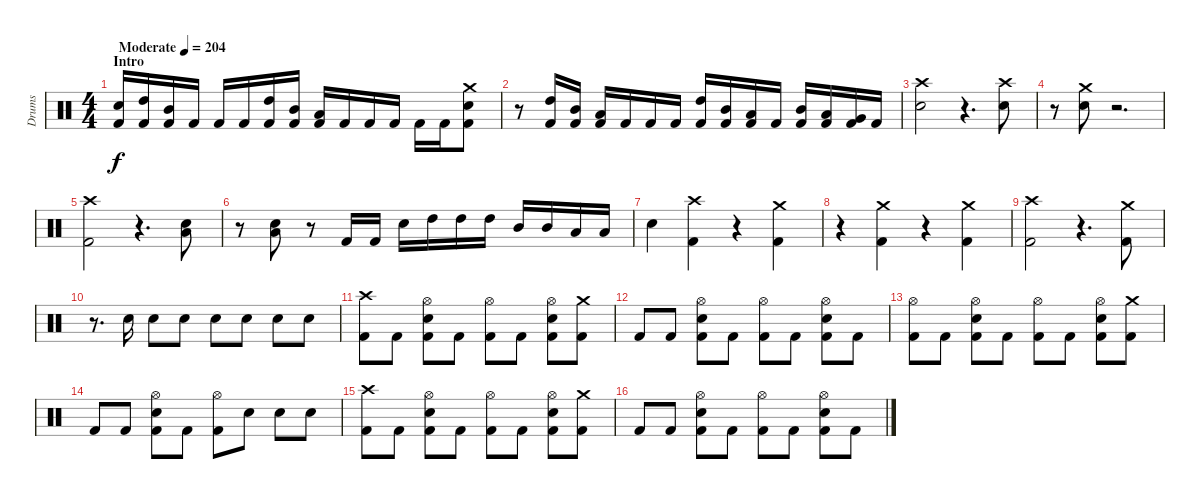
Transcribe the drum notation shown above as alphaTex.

\track ("Drums" "Drums") {instrument percussion}
\staff {score}
\articulation defaults
\ts (4 4)
\section ("" "Intro")
\tempo (204 "Moderate")
\clef neutral
\ks c
("Snare (hit) 2" "Kick (hit) 2").16{dy f} ("High Tom (hit)" "Kick (hit) 2").16 ("Mid Tom (hit)" "Kick (hit) 2").16 "Kick (hit) 2".16 "Kick (hit) 2".16 "Kick (hit) 2".16 ("High Tom (hit)" "Kick (hit) 2").16 ("Mid Tom (hit)" "Kick (hit) 2").16 ("Low Tom (hit)" "Kick (hit) 2").16 "Kick (hit) 2".16 "Kick (hit) 2".16 "Kick (hit) 2".16 "Kick (hit) 2".16 "Kick (hit) 2".16 ("Crash medium (hit)" "Snare (hit) 2" "Kick (hit) 2").8 |
r.8 ("High Tom (hit)" "Kick (hit) 2").16 ("Mid Tom (hit)" "Kick (hit) 2").16 ("Low Tom (hit)" "Kick (hit) 2").16 "Kick (hit) 2".16 "Kick (hit) 2".16 "Kick (hit) 2".16 ("High Tom (hit)" "Kick (hit) 2").16 ("Mid Tom (hit)" "Kick (hit) 2").16 ("Low Tom (hit)" "Kick (hit) 2").16 "Kick (hit) 2".16 ("Mid Tom (hit)" "Kick (hit) 2").16 ("Low Tom (hit)" "Kick (hit) 2").16 ("Very Low Tom (hit)" "Kick (hit) 2").16 "Kick (hit) 2".16 |
("Crash high (hit)" "Snare (hit) 2").2 r.4{d} ("Crash high (hit)" "Snare (hit) 2").8 |
r.8 ("Crash medium (hit)" "Snare (hit) 2").8 r.2{d} |
("Crash high (hit)" "Kick (hit) 2").2 r.4{d} ("Snare (hit) 2" "Low Tom (hit)").8 |
r.8 ("Snare (hit) 2" "Low Tom (hit)").8 r.8 "Kick (hit) 2".16 "Kick (hit) 2".16 "Snare (hit) 2".16 "High Tom (hit)".16 "High Tom (hit)".16 "High Tom (hit)".16 "Mid Tom (hit)".16 "Mid Tom (hit)".16 "Low Tom (hit)".16 "Low Tom (hit)".16 |
"Snare (hit) 2".4 ("Crash high (hit)" "Kick (hit) 2").4 r.4{volume 0} ("Crash medium (hit)" "Kick (hit) 2").4{volume 16} |
r.4{volume 0} ("Crash medium (hit)" "Kick (hit) 2").4{volume 16} r.4{volume 0} ("Crash medium (hit)" "Kick (hit) 2").4{volume 16} |
("Crash high (hit)" "Kick (hit) 2").2 r.4{d} ("Crash medium (hit)" "Kick (hit) 2").8 |
r.8{d} "Snare (hit) 2".16 "Snare (hit) 2".8 "Snare (hit) 2".8 "Snare (hit) 2".8 "Snare (hit) 2".8 "Snare (hit) 2".8 "Snare (hit) 2".8 |
("Crash high (hit)" "Kick (hit) 2").8 "Kick (hit) 2".8 ("Hi-Hat (open)" "Snare (hit) 2" "Kick (hit) 2").8 "Kick (hit) 2".8 ("Hi-Hat (open)" "Kick (hit) 2").8 "Kick (hit) 2".8 ("Hi-Hat (open)" "Snare (hit) 2" "Kick (hit) 2").8 ("Crash medium (hit)" "Kick (hit) 2").8 |
"Kick (hit) 2".8 "Kick (hit) 2".8 ("Hi-Hat (open)" "Snare (hit) 2" "Kick (hit) 2").8 "Kick (hit) 2".8 ("Hi-Hat (open)" "Kick (hit) 2").8 "Kick (hit) 2".8 ("Hi-Hat (open)" "Snare (hit) 2" "Kick (hit) 2").8 "Kick (hit) 2".8 |
("Hi-Hat (open)" "Kick (hit) 2").8 "Kick (hit) 2".8 ("Hi-Hat (open)" "Snare (hit) 2" "Kick (hit) 2").8 "Kick (hit) 2".8 ("Hi-Hat (open)" "Kick (hit) 2").8 "Kick (hit) 2".8 ("Hi-Hat (open)" "Snare (hit) 2" "Kick (hit) 2").8 ("Crash medium (hit)" "Kick (hit) 2").8 |
"Kick (hit) 2".8 "Kick (hit) 2".8 ("Hi-Hat (open)" "Snare (hit) 2" "Kick (hit) 2").8 "Kick (hit) 2".8 ("Hi-Hat (open)" "Kick (hit) 2").8 "Snare (hit) 2".8 "Snare (hit) 2".8 "Snare (hit) 2".8 |
("Crash high (hit)" "Kick (hit) 2").8 "Kick (hit) 2".8 ("Hi-Hat (open)" "Snare (hit) 2" "Kick (hit) 2").8 "Kick (hit) 2".8 ("Hi-Hat (open)" "Kick (hit) 2").8 "Kick (hit) 2".8 ("Hi-Hat (open)" "Snare (hit) 2" "Kick (hit) 2").8 ("Crash medium (hit)" "Kick (hit) 2").8 |
"Kick (hit) 2".8 "Kick (hit) 2".8 ("Hi-Hat (open)" "Snare (hit) 2" "Kick (hit) 2").8 "Kick (hit) 2".8 ("Hi-Hat (open)" "Kick (hit) 2").8 "Kick (hit) 2".8 ("Hi-Hat (open)" "Snare (hit) 2" "Kick (hit) 2").8 "Kick (hit) 2".8
